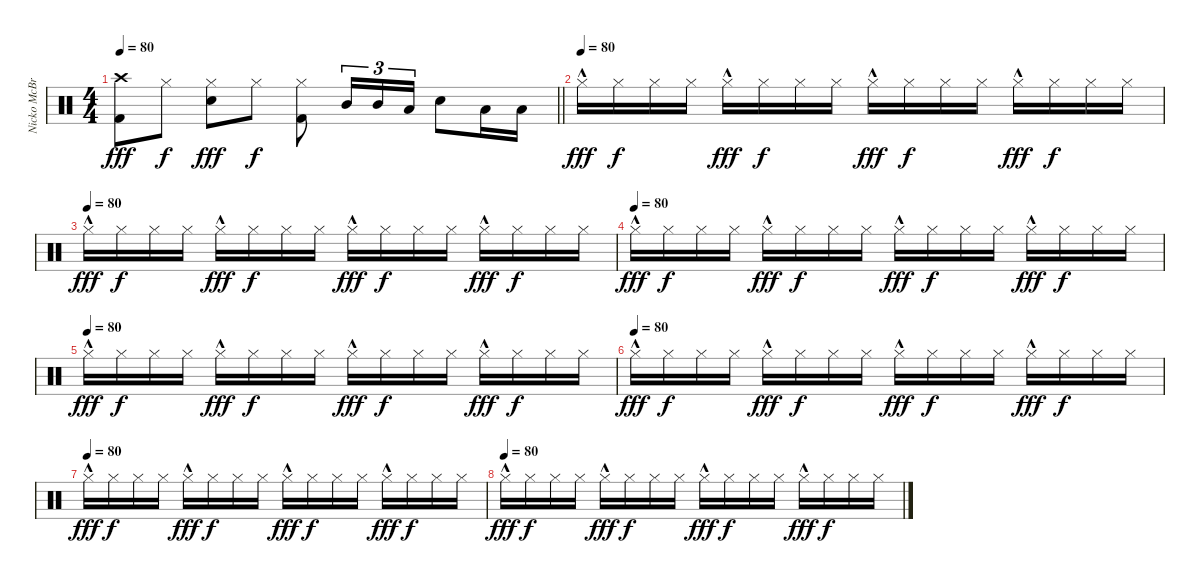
\track ("Nicko McBrain" "Nicko McBr") {instrument percussion}
\staff {score}
\articulation defaults
\ts (4 4)
\tempo 80
\clef neutral
\barLineRight lightlight
\ks c
("Crash high (hit)" "Kick (hit) 2").8{dy fff} "Hi-Hat (closed)".8{dy f} ("Hi-Hat (closed)" "Snare (hit) 2").8{dy fff} "Hi-Hat (closed)".8{dy f} ("Hi-Hat (closed)" "Kick (hit) 2").8 "Mid Tom (hit)".16{tu (3 2)} "Mid Tom (hit)".16{tu (3 2)} "Low Tom (hit)".16{tu (3 2)} "Snare (hit) 2".8 "Low Floor Tom (hit)".16 "Low Floor Tom (hit)".16 |
\tempo (80)
"Hi-Hat (closed)"{hac}.16{dy fff} "Hi-Hat (closed)".16{dy f} "Hi-Hat (closed)".16 "Hi-Hat (closed)".16 "Hi-Hat (closed)"{hac}.16{dy fff} "Hi-Hat (closed)".16{dy f} "Hi-Hat (closed)".16 "Hi-Hat (closed)".16 "Hi-Hat (closed)"{hac}.16{dy fff} "Hi-Hat (closed)".16{dy f} "Hi-Hat (closed)".16 "Hi-Hat (closed)".16 "Hi-Hat (closed)"{hac}.16{dy fff} "Hi-Hat (closed)".16{dy f} "Hi-Hat (closed)".16 "Hi-Hat (closed)".16 |
\tempo (80)
"Hi-Hat (closed)"{hac}.16{dy fff} "Hi-Hat (closed)".16{dy f} "Hi-Hat (closed)".16 "Hi-Hat (closed)".16 "Hi-Hat (closed)"{hac}.16{dy fff} "Hi-Hat (closed)".16{dy f} "Hi-Hat (closed)".16 "Hi-Hat (closed)".16 "Hi-Hat (closed)"{hac}.16{dy fff} "Hi-Hat (closed)".16{dy f} "Hi-Hat (closed)".16 "Hi-Hat (closed)".16 "Hi-Hat (closed)"{hac}.16{dy fff} "Hi-Hat (closed)".16{dy f} "Hi-Hat (closed)".16 "Hi-Hat (closed)".16 |
\tempo (80)
"Hi-Hat (closed)"{hac}.16{dy fff} "Hi-Hat (closed)".16{dy f} "Hi-Hat (closed)".16 "Hi-Hat (closed)".16 "Hi-Hat (closed)"{hac}.16{dy fff} "Hi-Hat (closed)".16{dy f} "Hi-Hat (closed)".16 "Hi-Hat (closed)".16 "Hi-Hat (closed)"{hac}.16{dy fff} "Hi-Hat (closed)".16{dy f} "Hi-Hat (closed)".16 "Hi-Hat (closed)".16 "Hi-Hat (closed)"{hac}.16{dy fff} "Hi-Hat (closed)".16{dy f} "Hi-Hat (closed)".16 "Hi-Hat (closed)".16 |
\tempo (80)
"Hi-Hat (closed)"{hac}.16{dy fff} "Hi-Hat (closed)".16{dy f} "Hi-Hat (closed)".16 "Hi-Hat (closed)".16 "Hi-Hat (closed)"{hac}.16{dy fff} "Hi-Hat (closed)".16{dy f} "Hi-Hat (closed)".16 "Hi-Hat (closed)".16 "Hi-Hat (closed)"{hac}.16{dy fff} "Hi-Hat (closed)".16{dy f} "Hi-Hat (closed)".16 "Hi-Hat (closed)".16 "Hi-Hat (closed)"{hac}.16{dy fff} "Hi-Hat (closed)".16{dy f} "Hi-Hat (closed)".16 "Hi-Hat (closed)".16 |
\tempo (80)
"Hi-Hat (closed)"{hac}.16{dy fff} "Hi-Hat (closed)".16{dy f} "Hi-Hat (closed)".16 "Hi-Hat (closed)".16 "Hi-Hat (closed)"{hac}.16{dy fff} "Hi-Hat (closed)".16{dy f} "Hi-Hat (closed)".16 "Hi-Hat (closed)".16 "Hi-Hat (closed)"{hac}.16{dy fff} "Hi-Hat (closed)".16{dy f} "Hi-Hat (closed)".16 "Hi-Hat (closed)".16 "Hi-Hat (closed)"{hac}.16{dy fff} "Hi-Hat (closed)".16{dy f} "Hi-Hat (closed)".16 "Hi-Hat (closed)".16 |
\tempo (80)
"Hi-Hat (closed)"{hac}.16{dy fff} "Hi-Hat (closed)".16{dy f} "Hi-Hat (closed)".16 "Hi-Hat (closed)".16 "Hi-Hat (closed)"{hac}.16{dy fff} "Hi-Hat (closed)".16{dy f} "Hi-Hat (closed)".16 "Hi-Hat (closed)".16 "Hi-Hat (closed)"{hac}.16{dy fff} "Hi-Hat (closed)".16{dy f} "Hi-Hat (closed)".16 "Hi-Hat (closed)".16 "Hi-Hat (closed)"{hac}.16{dy fff} "Hi-Hat (closed)".16{dy f} "Hi-Hat (closed)".16 "Hi-Hat (closed)".16 |
\tempo (80)
"Hi-Hat (closed)"{hac}.16{dy fff} "Hi-Hat (closed)".16{dy f} "Hi-Hat (closed)".16 "Hi-Hat (closed)".16 "Hi-Hat (closed)"{hac}.16{dy fff} "Hi-Hat (closed)".16{dy f} "Hi-Hat (closed)".16 "Hi-Hat (closed)".16 "Hi-Hat (closed)"{hac}.16{dy fff} "Hi-Hat (closed)".16{dy f} "Hi-Hat (closed)".16 "Hi-Hat (closed)".16 "Hi-Hat (closed)"{hac}.16{dy fff} "Hi-Hat (closed)".16{dy f} "Hi-Hat (closed)".16 "Hi-Hat (closed)".16
